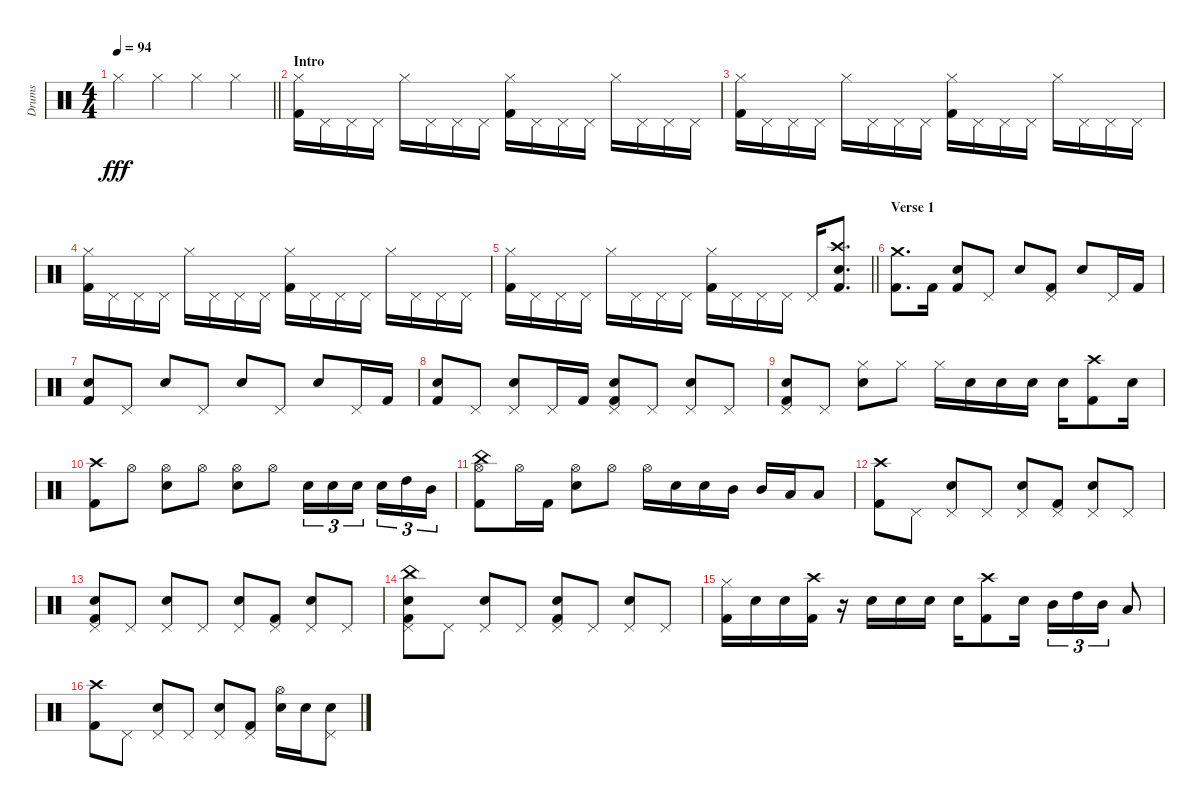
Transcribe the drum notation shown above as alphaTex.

\track ("Drums" "Drums") {instrument percussion}
\staff {score}
\articulation defaults
\ts (4 4)
\tempo 94
\clef neutral
\barLineRight lightlight
\ks c "Hi-Hat (closed)".4{dy fff} "Hi-Hat (closed)".4 "Hi-Hat (closed)".4 "Hi-Hat (closed)".4
|
\section ("" "Intro")
("Hi-Hat (closed)" "Kick (hit) 2").16 "Pedal Hi-Hat (hit)".16 "Pedal Hi-Hat (hit)".16 "Pedal Hi-Hat (hit)".16 "Hi-Hat (closed)".16 "Pedal Hi-Hat (hit)".16 "Pedal Hi-Hat (hit)".16 "Pedal Hi-Hat (hit)".16 ("Hi-Hat (closed)" "Kick (hit) 2").16 "Pedal Hi-Hat (hit)".16 "Pedal Hi-Hat (hit)".16 "Pedal Hi-Hat (hit)".16 "Hi-Hat (closed)".16 "Pedal Hi-Hat (hit)".16 "Pedal Hi-Hat (hit)".16 "Pedal Hi-Hat (hit)".16 |
("Hi-Hat (closed)" "Kick (hit) 2").16 "Pedal Hi-Hat (hit)".16 "Pedal Hi-Hat (hit)".16 "Pedal Hi-Hat (hit)".16 "Hi-Hat (closed)".16 "Pedal Hi-Hat (hit)".16 "Pedal Hi-Hat (hit)".16 "Pedal Hi-Hat (hit)".16 ("Hi-Hat (closed)" "Kick (hit) 2").16 "Pedal Hi-Hat (hit)".16 "Pedal Hi-Hat (hit)".16 "Pedal Hi-Hat (hit)".16 "Hi-Hat (closed)".16 "Pedal Hi-Hat (hit)".16 "Pedal Hi-Hat (hit)".16 "Pedal Hi-Hat (hit)".16 |
("Hi-Hat (closed)" "Kick (hit) 2").16 "Pedal Hi-Hat (hit)".16 "Pedal Hi-Hat (hit)".16 "Pedal Hi-Hat (hit)".16 "Hi-Hat (closed)".16 "Pedal Hi-Hat (hit)".16 "Pedal Hi-Hat (hit)".16 "Pedal Hi-Hat (hit)".16 ("Hi-Hat (closed)" "Kick (hit) 2").16 "Pedal Hi-Hat (hit)".16 "Pedal Hi-Hat (hit)".16 "Pedal Hi-Hat (hit)".16 "Hi-Hat (closed)".16 "Pedal Hi-Hat (hit)".16 "Pedal Hi-Hat (hit)".16 "Pedal Hi-Hat (hit)".16 |
\barLineRight lightlight
("Hi-Hat (closed)" "Kick (hit) 2").16 "Pedal Hi-Hat (hit)".16 "Pedal Hi-Hat (hit)".16 "Pedal Hi-Hat (hit)".16 "Hi-Hat (closed)".16 "Pedal Hi-Hat (hit)".16 "Pedal Hi-Hat (hit)".16 "Pedal Hi-Hat (hit)".16 ("Hi-Hat (closed)" "Kick (hit) 2").16 "Pedal Hi-Hat (hit)".16 "Pedal Hi-Hat (hit)".16 "Pedal Hi-Hat (hit)".16 "Pedal Hi-Hat (hit)".16 ("Crash high (hit)" "Electric Snare (hit)" "Kick (hit) 2").8{d} |
\section ("" "Verse 1")
("Crash medium (hit)" "Kick (hit) 2").8{d} "Kick (hit) 2".16 ("Electric Snare (hit)" "Kick (hit) 2").8 "Pedal Hi-Hat (hit)".8 "Electric Snare (hit)".8 ("Pedal Hi-Hat (hit)" "Kick (hit) 2").8 "Electric Snare (hit)".8 "Pedal Hi-Hat (hit)".16 "Kick (hit) 2".16 |
("Electric Snare (hit)" "Kick (hit) 2").8 "Pedal Hi-Hat (hit)".8 "Electric Snare (hit)".8 "Pedal Hi-Hat (hit)".8 "Electric Snare (hit)".8 "Pedal Hi-Hat (hit)".8 "Electric Snare (hit)".8 "Pedal Hi-Hat (hit)".16 "Kick (hit) 2".16 |
("Electric Snare (hit)" "Kick (hit) 2").8 "Pedal Hi-Hat (hit)".8 ("Pedal Hi-Hat (hit)" "Electric Snare (hit)").8 "Pedal Hi-Hat (hit)".16 "Kick (hit) 2".16 ("Pedal Hi-Hat (hit)" "Electric Snare (hit)" "Kick (hit) 2").8 "Pedal Hi-Hat (hit)".8 ("Pedal Hi-Hat (hit)" "Electric Snare (hit)").8 "Pedal Hi-Hat (hit)".8 |
("Pedal Hi-Hat (hit)" "Electric Snare (hit)" "Kick (hit) 2").8 "Pedal Hi-Hat (hit)".8 ("Hi-Hat (closed)" "Electric Snare (hit)").8 "Hi-Hat (closed)".8 "Hi-Hat (closed)".16 "Electric Snare (hit)".16 "Electric Snare (hit)".16 "Electric Snare (hit)".16 "Electric Snare (hit)".16 ("Crash high (hit)" "Kick (hit) 2").8 "Electric Snare (hit)".16 |
("Crash high (hit)" "Kick (hit) 2").8 "Hi-Hat (open)".8 ("Hi-Hat (open)" "Electric Snare (hit)").8 "Hi-Hat (open)".8 ("Hi-Hat (open)" "Electric Snare (hit)").8 "Hi-Hat (open)".8 "Electric Snare (hit)".16{tu (3 2)} "Electric Snare (hit)".16{tu (3 2)} "Electric Snare (hit)".16{tu (3 2) beam splitsecondary} "Electric Snare (hit)".16{tu (3 2)} "High Tom (hit)".16{tu (3 2)} "Mid Tom (hit)".16{tu (3 2)} |
("China (hit)" "Hi-Hat (open)" "Kick (hit) 2").8 "Hi-Hat (open)".16 "Kick (hit) 2".16 ("Hi-Hat (open)" "Electric Snare (hit)").8 "Hi-Hat (open)".8 "Hi-Hat (open)".16 "Electric Snare (hit)".16 "Electric Snare (hit)".16 "Mid Tom (hit)".16 "Mid Tom (hit)".16 "Low Tom (hit)".16 "Low Tom (hit)".8 |
("Crash high (hit)" "Kick (hit) 2").8 "Pedal Hi-Hat (hit)".8 ("Pedal Hi-Hat (hit)" "Electric Snare (hit)").8 "Pedal Hi-Hat (hit)".8 ("Pedal Hi-Hat (hit)" "Electric Snare (hit)").8 ("Pedal Hi-Hat (hit)" "Kick (hit) 2").8 ("Pedal Hi-Hat (hit)" "Electric Snare (hit)").8 "Pedal Hi-Hat (hit)".8 |
("Pedal Hi-Hat (hit)" "Electric Snare (hit)" "Kick (hit) 2").8 "Pedal Hi-Hat (hit)".8 ("Pedal Hi-Hat (hit)" "Electric Snare (hit)").8 "Pedal Hi-Hat (hit)".8 ("Pedal Hi-Hat (hit)" "Electric Snare (hit)").8 ("Pedal Hi-Hat (hit)" "Kick (hit) 2").8 ("Pedal Hi-Hat (hit)" "Electric Snare (hit)").8 "Pedal Hi-Hat (hit)".8 |
("China (hit)" "Pedal Hi-Hat (hit)" "Electric Snare (hit)" "Kick (hit) 2").8 "Pedal Hi-Hat (hit)".8 ("Pedal Hi-Hat (hit)" "Electric Snare (hit)").8 "Pedal Hi-Hat (hit)".8 ("Pedal Hi-Hat (hit)" "Electric Snare (hit)" "Kick (hit) 2").8 "Pedal Hi-Hat (hit)".8 ("Pedal Hi-Hat (hit)" "Electric Snare (hit)").8 "Pedal Hi-Hat (hit)".8 |
("Hi-Hat (closed)" "Kick (hit) 2").16 "Electric Snare (hit)".16 "Electric Snare (hit)".16 ("Crash high (hit)" "Kick (hit) 2").16 r.16 "Electric Snare (hit)".16 "Electric Snare (hit)".16 "Electric Snare (hit)".16 "Electric Snare (hit)".16 ("Crash high (hit)" "Kick (hit) 2").8 "Electric Snare (hit)".16 "Mid Tom (hit)".16{tu (3 2)} "High Tom (hit)".16{tu (3 2)} "Mid Tom (hit)".16{tu (3 2)} "Low Tom (hit)".8 |
("Crash high (hit)" "Kick (hit) 2").8 "Pedal Hi-Hat (hit)".8 ("Pedal Hi-Hat (hit)" "Electric Snare (hit)").8 "Pedal Hi-Hat (hit)".8 ("Pedal Hi-Hat (hit)" "Electric Snare (hit)").8 ("Pedal Hi-Hat (hit)" "Kick (hit) 2").8 ("Hi-Hat (open)" "Electric Snare (hit)").16 "Electric Snare (hit)".16 ("Pedal Hi-Hat (hit)" "Electric Snare (hit)").8
